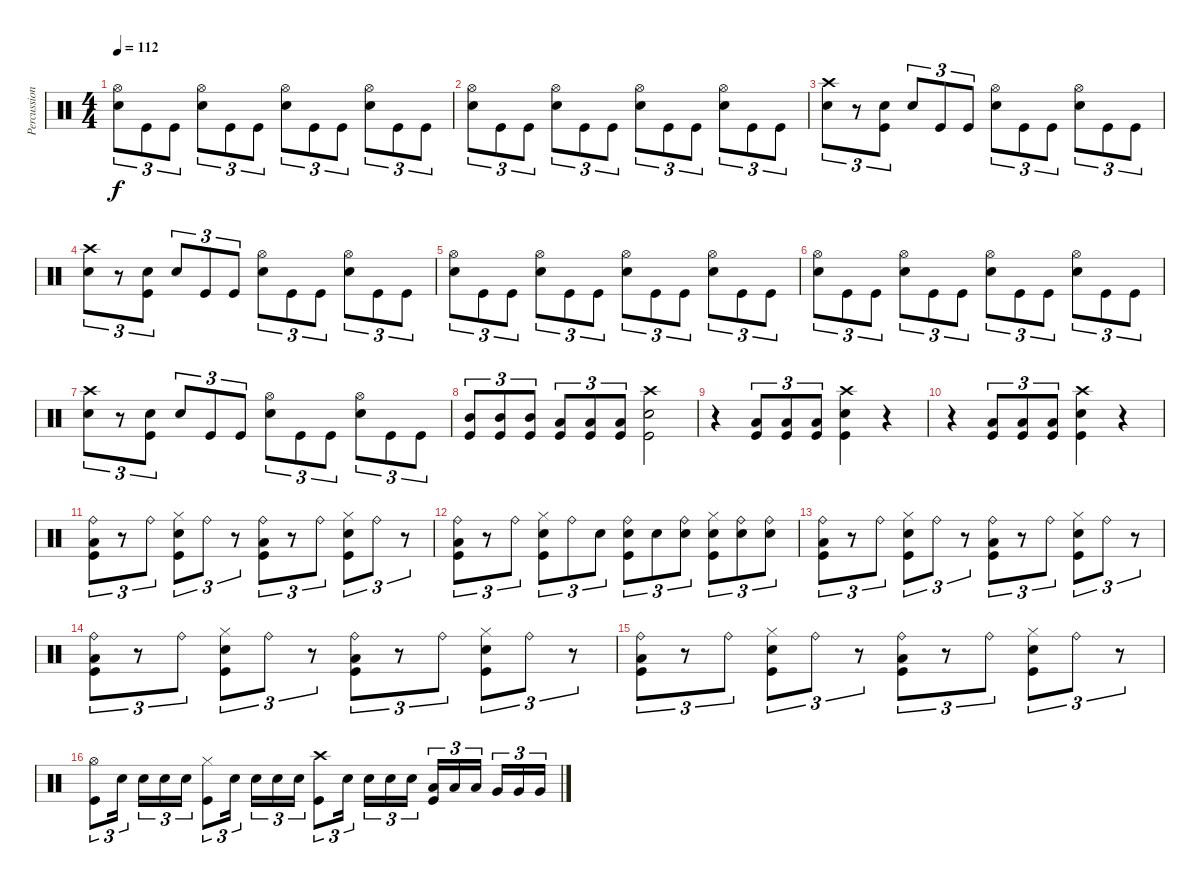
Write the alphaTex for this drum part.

\track ("Percussion" "Percussion") {instrument percussion}
\staff {score}
\articulation defaults
\ts (4 4)
\tempo 112
\clef neutral
\ks c
("Hi-Hat (open)" "Snare (hit) 2").8{tu (3 2) dy f} "Kick (hit)".8{tu (3 2)} "Kick (hit)".8{tu (3 2)} ("Hi-Hat (open)" "Snare (hit) 2").8{tu (3 2)} "Kick (hit)".8{tu (3 2)} "Kick (hit)".8{tu (3 2)} ("Hi-Hat (open)" "Snare (hit) 2").8{tu (3 2)} "Kick (hit)".8{tu (3 2)} "Kick (hit)".8{tu (3 2)} ("Hi-Hat (open)" "Snare (hit) 2").8{tu (3 2)} "Kick (hit)".8{tu (3 2)} "Kick (hit)".8{tu (3 2)} |
("Hi-Hat (open)" "Snare (hit) 2").8{tu (3 2)} "Kick (hit)".8{tu (3 2)} "Kick (hit)".8{tu (3 2)} ("Hi-Hat (open)" "Snare (hit) 2").8{tu (3 2)} "Kick (hit)".8{tu (3 2)} "Kick (hit)".8{tu (3 2)} ("Hi-Hat (open)" "Snare (hit) 2").8{tu (3 2)} "Kick (hit)".8{tu (3 2)} "Kick (hit)".8{tu (3 2)} ("Hi-Hat (open)" "Snare (hit) 2").8{tu (3 2)} "Kick (hit)".8{tu (3 2)} "Kick (hit)".8{tu (3 2)} |
("Crash high (hit)" "Snare (hit) 2").8{tu (3 2)} r.8{tu (3 2)} ("Snare (hit) 2" "Kick (hit)").8{tu (3 2)} "Snare (hit) 2".8{tu (3 2)} "Kick (hit)".8{tu (3 2)} "Kick (hit)".8{tu (3 2)} ("Hi-Hat (open)" "Snare (hit) 2").8{tu (3 2)} "Kick (hit)".8{tu (3 2)} "Kick (hit)".8{tu (3 2)} ("Hi-Hat (open)" "Snare (hit) 2").8{tu (3 2)} "Kick (hit)".8{tu (3 2)} "Kick (hit)".8{tu (3 2)} |
("Crash high (hit)" "Snare (hit) 2").8{tu (3 2)} r.8{tu (3 2)} ("Snare (hit) 2" "Kick (hit)").8{tu (3 2)} "Snare (hit) 2".8{tu (3 2)} "Kick (hit)".8{tu (3 2)} "Kick (hit)".8{tu (3 2)} ("Hi-Hat (open)" "Snare (hit) 2").8{tu (3 2)} "Kick (hit)".8{tu (3 2)} "Kick (hit)".8{tu (3 2)} ("Hi-Hat (open)" "Snare (hit) 2").8{tu (3 2)} "Kick (hit)".8{tu (3 2)} "Kick (hit)".8{tu (3 2)} |
("Hi-Hat (open)" "Snare (hit) 2").8{tu (3 2)} "Kick (hit)".8{tu (3 2)} "Kick (hit)".8{tu (3 2)} ("Hi-Hat (open)" "Snare (hit) 2").8{tu (3 2)} "Kick (hit)".8{tu (3 2)} "Kick (hit)".8{tu (3 2)} ("Hi-Hat (open)" "Snare (hit) 2").8{tu (3 2)} "Kick (hit)".8{tu (3 2)} "Kick (hit)".8{tu (3 2)} ("Hi-Hat (open)" "Snare (hit) 2").8{tu (3 2)} "Kick (hit)".8{tu (3 2)} "Kick (hit)".8{tu (3 2)} |
("Hi-Hat (open)" "Snare (hit) 2").8{tu (3 2)} "Kick (hit)".8{tu (3 2)} "Kick (hit)".8{tu (3 2)} ("Hi-Hat (open)" "Snare (hit) 2").8{tu (3 2)} "Kick (hit)".8{tu (3 2)} "Kick (hit)".8{tu (3 2)} ("Hi-Hat (open)" "Snare (hit) 2").8{tu (3 2)} "Kick (hit)".8{tu (3 2)} "Kick (hit)".8{tu (3 2)} ("Hi-Hat (open)" "Snare (hit) 2").8{tu (3 2)} "Kick (hit)".8{tu (3 2)} "Kick (hit)".8{tu (3 2)} |
("Crash high (hit)" "Snare (hit) 2").8{tu (3 2)} r.8{tu (3 2)} ("Snare (hit) 2" "Kick (hit)").8{tu (3 2)} "Snare (hit) 2".8{tu (3 2)} "Kick (hit)".8{tu (3 2)} "Kick (hit)".8{tu (3 2)} ("Hi-Hat (open)" "Snare (hit) 2").8{tu (3 2)} "Kick (hit)".8{tu (3 2)} "Kick (hit)".8{tu (3 2)} ("Hi-Hat (open)" "Snare (hit) 2").8{tu (3 2)} "Kick (hit)".8{tu (3 2)} "Kick (hit)".8{tu (3 2)} |
("Mid Tom (hit)" "Kick (hit)").8{tu (3 2)} ("Mid Tom (hit)" "Kick (hit)").8{tu (3 2)} ("Mid Tom (hit)" "Kick (hit)").8{tu (3 2)} ("Low Tom (hit)" "Kick (hit)").8{tu (3 2)} ("Low Tom (hit)" "Kick (hit)").8{tu (3 2)} ("Low Tom (hit)" "Kick (hit)").8{tu (3 2)} ("Crash high (hit)" "Snare (hit) 2" "Kick (hit)").2 |
r.4 ("Low Tom (hit)" "Kick (hit)").8{tu (3 2)} ("Low Tom (hit)" "Kick (hit)").8{tu (3 2)} ("Low Tom (hit)" "Kick (hit)").8{tu (3 2)} ("Crash high (hit)" "Snare (hit) 2" "Kick (hit)").4 r.4 |
r.4 ("Low Tom (hit)" "Kick (hit)").8{tu (3 2)} ("Low Tom (hit)" "Kick (hit)").8{tu (3 2)} ("Low Tom (hit)" "Kick (hit)").8{tu (3 2)} ("Crash high (hit)" "Snare (hit) 2" "Kick (hit)").4 r.4 |
("Ride (bell)" "Low Tom (hit)" "Kick (hit)").8{tu (3 2)} r.8{tu (3 2)} "Ride (bell)".8{tu (3 2)} ("Hi-Hat (closed)" "Snare (hit) 2" "Kick (hit)").8{tu (3 2)} "Ride (bell)".8{tu (3 2)} r.8{tu (3 2)} ("Ride (bell)" "Low Tom (hit)" "Kick (hit)").8{tu (3 2)} r.8{tu (3 2)} "Ride (bell)".8{tu (3 2)} ("Hi-Hat (closed)" "Snare (hit) 2" "Kick (hit)").8{tu (3 2)} "Ride (bell)".8{tu (3 2)} r.8{tu (3 2)} |
("Ride (bell)" "Low Tom (hit)" "Kick (hit)").8{tu (3 2)} r.8{tu (3 2)} "Ride (bell)".8{tu (3 2)} ("Hi-Hat (closed)" "Snare (hit) 2" "Kick (hit)").8{tu (3 2)} "Ride (bell)".8{tu (3 2)} "Snare (hit) 2".8{tu (3 2)} ("Ride (bell)" "Snare (hit) 2" "Kick (hit)").8{tu (3 2)} "Snare (hit) 2".8{tu (3 2)} ("Ride (bell)" "Snare (hit) 2").8{tu (3 2)} ("Hi-Hat (closed)" "Snare (hit) 2" "Kick (hit)").8{tu (3 2)} ("Ride (bell)" "Snare (hit) 2").8{tu (3 2)} ("Ride (bell)" "Snare (hit) 2").8{tu (3 2)} |
("Ride (bell)" "Low Tom (hit)" "Kick (hit)").8{tu (3 2)} r.8{tu (3 2)} "Ride (bell)".8{tu (3 2)} ("Hi-Hat (closed)" "Snare (hit) 2" "Kick (hit)").8{tu (3 2)} "Ride (bell)".8{tu (3 2)} r.8{tu (3 2)} ("Ride (bell)" "Low Tom (hit)" "Kick (hit)").8{tu (3 2)} r.8{tu (3 2)} "Ride (bell)".8{tu (3 2)} ("Hi-Hat (closed)" "Snare (hit) 2" "Kick (hit)").8{tu (3 2)} "Ride (bell)".8{tu (3 2)} r.8{tu (3 2)} |
("Ride (bell)" "Low Tom (hit)" "Kick (hit)").8{tu (3 2)} r.8{tu (3 2)} "Ride (bell)".8{tu (3 2)} ("Hi-Hat (closed)" "Snare (hit) 2" "Kick (hit)").8{tu (3 2)} "Ride (bell)".8{tu (3 2)} r.8{tu (3 2)} ("Ride (bell)" "Low Tom (hit)" "Kick (hit)").8{tu (3 2)} r.8{tu (3 2)} "Ride (bell)".8{tu (3 2)} ("Hi-Hat (closed)" "Snare (hit) 2" "Kick (hit)").8{tu (3 2)} "Ride (bell)".8{tu (3 2)} r.8{tu (3 2)} |
("Ride (bell)" "Low Tom (hit)" "Kick (hit)").8{tu (3 2)} r.8{tu (3 2)} "Ride (bell)".8{tu (3 2)} ("Hi-Hat (closed)" "Snare (hit) 2" "Kick (hit)").8{tu (3 2)} "Ride (bell)".8{tu (3 2)} r.8{tu (3 2)} ("Ride (bell)" "Low Tom (hit)" "Kick (hit)").8{tu (3 2)} r.8{tu (3 2)} "Ride (bell)".8{tu (3 2)} ("Hi-Hat (closed)" "Snare (hit) 2" "Kick (hit)").8{tu (3 2)} "Ride (bell)".8{tu (3 2)} r.8{tu (3 2)} |
("Hi-Hat (open)" "Kick (hit)").8{tu (3 2)} "Snare (hit) 2".16{tu (3 2)} "Snare (hit) 2".16{tu (3 2)} "Snare (hit) 2".16{tu (3 2)} "Snare (hit) 2".16{tu (3 2)} ("Hi-Hat (closed)" "Kick (hit)").8{tu (3 2)} "Snare (hit) 2".16{tu (3 2)} "Snare (hit) 2".16{tu (3 2)} "Snare (hit) 2".16{tu (3 2)} "Snare (hit) 2".16{tu (3 2)} ("Crash high (hit)" "Kick (hit)").8{tu (3 2)} "Snare (hit) 2".16{tu (3 2)} "Snare (hit) 2".16{tu (3 2)} "Snare (hit) 2".16{tu (3 2)} "Snare (hit) 2".16{tu (3 2)} ("Low Tom (hit)" "Kick (hit)").16{tu (3 2)} "Low Tom (hit)".16{tu (3 2)} "Low Tom (hit)".16{tu (3 2)} "Very Low Tom (hit)".16{tu (3 2)} "Very Low Tom (hit)".16{tu (3 2)} "Very Low Tom (hit)".16{tu (3 2)}
